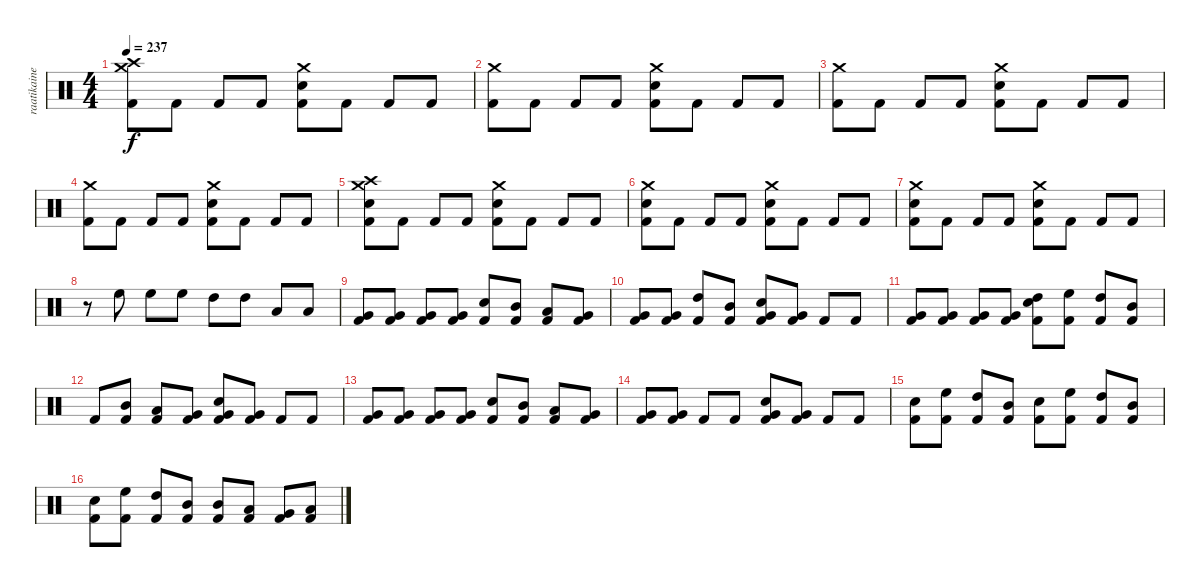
\track ("raatikainen" "raatikaine") {instrument percussion}
\staff {score}
\articulation defaults
\ts (4 4)
\tempo 237
\clef neutral
\ks c
("Crash high (hit)" "Crash medium (hit)" "Kick (hit) 2").8{dy f} "Kick (hit) 2".8 "Kick (hit) 2".8 "Kick (hit) 2".8 ("Crash medium (hit)" "Snare (hit) 2" "Kick (hit) 2").8 "Kick (hit) 2".8 "Kick (hit) 2".8 "Kick (hit) 2".8 |
("Crash medium (hit)" "Kick (hit) 2").8 "Kick (hit) 2".8 "Kick (hit) 2".8 "Kick (hit) 2".8 ("Crash medium (hit)" "Snare (hit) 2" "Kick (hit) 2").8 "Kick (hit) 2".8 "Kick (hit) 2".8 "Kick (hit) 2".8 |
("Crash medium (hit)" "Kick (hit) 2").8 "Kick (hit) 2".8 "Kick (hit) 2".8 "Kick (hit) 2".8 ("Crash medium (hit)" "Snare (hit) 2" "Kick (hit) 2").8 "Kick (hit) 2".8 "Kick (hit) 2".8 "Kick (hit) 2".8 |
("Crash medium (hit)" "Kick (hit) 2").8 "Kick (hit) 2".8 "Kick (hit) 2".8 "Kick (hit) 2".8 ("Crash medium (hit)" "Snare (hit) 2" "Kick (hit) 2").8 "Kick (hit) 2".8 "Kick (hit) 2".8 "Kick (hit) 2".8 |
("Crash high (hit)" "Crash medium (hit)" "Snare (hit) 2" "Kick (hit) 2").8 "Kick (hit) 2".8 "Kick (hit) 2".8 "Kick (hit) 2".8 ("Crash medium (hit)" "Snare (hit) 2" "Kick (hit) 2").8 "Kick (hit) 2".8 "Kick (hit) 2".8 "Kick (hit) 2".8 |
("Crash medium (hit)" "Snare (hit) 2" "Kick (hit) 2").8 "Kick (hit) 2".8 "Kick (hit) 2".8 "Kick (hit) 2".8 ("Crash medium (hit)" "Snare (hit) 2" "Kick (hit) 2").8 "Kick (hit) 2".8 "Kick (hit) 2".8 "Kick (hit) 2".8 |
("Crash medium (hit)" "Snare (hit) 2" "Kick (hit) 2").8 "Kick (hit) 2".8 "Kick (hit) 2".8 "Kick (hit) 2".8 ("Crash medium (hit)" "Snare (hit) 2" "Kick (hit) 2").8 "Kick (hit) 2".8 "Kick (hit) 2".8 "Kick (hit) 2".8 |
r.8 "High Floor Tom (hit)".8 "High Floor Tom (hit)".8 "High Floor Tom (hit)".8 "High Tom (hit)".8 "High Tom (hit)".8 "Low Tom (hit)".8 "Low Tom (hit)".8 |
("Very Low Tom (hit)" "Kick (hit) 2").8 ("Very Low Tom (hit)" "Kick (hit) 2").8 ("Very Low Tom (hit)" "Kick (hit) 2").8 ("Very Low Tom (hit)" "Kick (hit) 2").8 ("Snare (hit) 2" "Kick (hit) 2").8 ("Mid Tom (hit)" "Kick (hit) 2").8 ("Low Tom (hit)" "Kick (hit) 2").8 ("Very Low Tom (hit)" "Kick (hit) 2").8 |
("Very Low Tom (hit)" "Kick (hit) 2").8 ("Very Low Tom (hit)" "Kick (hit) 2").8 ("High Tom (hit)" "Kick (hit) 2").8 ("Mid Tom (hit)" "Kick (hit) 2").8 ("Very Low Tom (hit)" "Snare (hit) 2" "Kick (hit) 2").8 ("Very Low Tom (hit)" "Kick (hit) 2").8 "Kick (hit) 2".8 "Kick (hit) 2".8 |
("Very Low Tom (hit)" "Kick (hit) 2").8 ("Very Low Tom (hit)" "Kick (hit) 2").8 ("Very Low Tom (hit)" "Kick (hit) 2").8 ("Very Low Tom (hit)" "Kick (hit) 2").8 ("High Tom (hit)" "Snare (hit) 2" "Kick (hit) 2").8 ("High Floor Tom (hit)" "Kick (hit) 2").8 ("High Tom (hit)" "Kick (hit) 2").8 ("Mid Tom (hit)" "Kick (hit) 2").8 |
"Kick (hit) 2".8 ("Mid Tom (hit)" "Kick (hit) 2").8 ("Low Tom (hit)" "Kick (hit) 2").8 ("Very Low Tom (hit)" "Kick (hit) 2").8 ("Snare (hit) 2" "Very Low Tom (hit)" "Kick (hit) 2").8 ("Very Low Tom (hit)" "Kick (hit) 2").8 "Kick (hit) 2".8 "Kick (hit) 2".8 |
("Very Low Tom (hit)" "Kick (hit) 2").8 ("Very Low Tom (hit)" "Kick (hit) 2").8 ("Very Low Tom (hit)" "Kick (hit) 2").8 ("Very Low Tom (hit)" "Kick (hit) 2").8 ("Snare (hit) 2" "Kick (hit) 2").8 ("Mid Tom (hit)" "Kick (hit) 2").8 ("Low Tom (hit)" "Kick (hit) 2").8 ("Very Low Tom (hit)" "Kick (hit) 2").8 |
("Very Low Tom (hit)" "Kick (hit) 2").8 ("Very Low Tom (hit)" "Kick (hit) 2").8 "Kick (hit) 2".8 "Kick (hit) 2".8 ("Snare (hit) 2" "Very Low Tom (hit)" "Kick (hit) 2").8 ("Very Low Tom (hit)" "Kick (hit) 2").8 "Kick (hit) 2".8 "Kick (hit) 2".8 |
("Snare (hit) 2" "Kick (hit) 2").8 ("High Floor Tom (hit)" "Kick (hit) 2").8 ("High Tom (hit)" "Kick (hit) 2").8 ("Mid Tom (hit)" "Kick (hit) 2").8 ("Snare (hit) 2" "Kick (hit) 2").8 ("High Floor Tom (hit)" "Kick (hit) 2").8 ("High Tom (hit)" "Kick (hit) 2").8 ("Mid Tom (hit)" "Kick (hit) 2").8 |
("Snare (hit) 2" "Kick (hit) 2").8 ("High Floor Tom (hit)" "Kick (hit) 2").8 ("High Tom (hit)" "Kick (hit) 2").8 ("Mid Tom (hit)" "Kick (hit) 2").8 ("Mid Tom (hit)" "Kick (hit) 2").8 ("Low Tom (hit)" "Kick (hit) 2").8 ("Very Low Tom (hit)" "Kick (hit) 2").8 ("Low Floor Tom (hit)" "Kick (hit) 2").8
